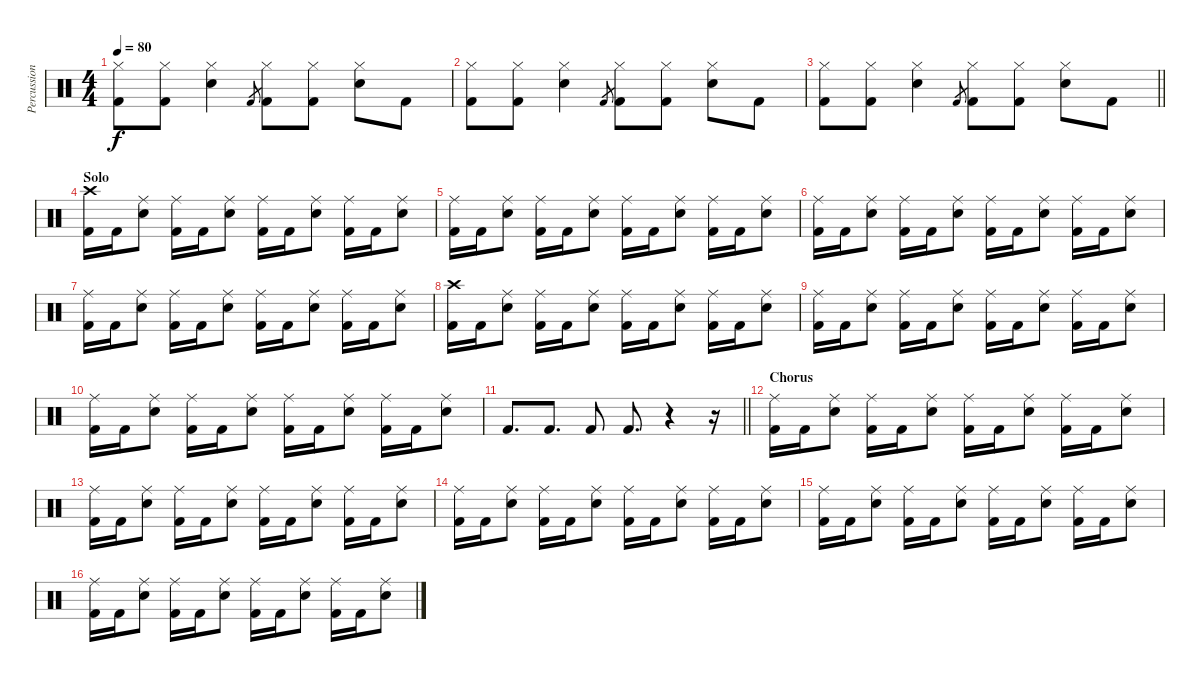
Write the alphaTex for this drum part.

\track ("Percussion" "Percussion") {instrument percussion}
\staff {score}
\articulation defaults
\ts (4 4)
\tempo 80
\clef neutral
\ks c
("Hi-Hat (closed)" "Kick (hit) 2").8{dy f} ("Hi-Hat (closed)" "Kick (hit) 2").8 ("Hi-Hat (closed)" "Snare (hit) 2").4 "Kick (hit) 2".8{gr} ("Hi-Hat (closed)" "Kick (hit) 2").8 ("Hi-Hat (closed)" "Kick (hit) 2").8 ("Hi-Hat (closed)" "Snare (hit) 2").8 "Kick (hit) 2".8 |
("Hi-Hat (closed)" "Kick (hit) 2").8 ("Hi-Hat (closed)" "Kick (hit) 2").8 ("Hi-Hat (closed)" "Snare (hit) 2").4 "Kick (hit) 2".8{gr} ("Hi-Hat (closed)" "Kick (hit) 2").8 ("Hi-Hat (closed)" "Kick (hit) 2").8 ("Hi-Hat (closed)" "Snare (hit) 2").8 "Kick (hit) 2".8 |
\barLineRight lightlight
("Hi-Hat (closed)" "Kick (hit) 2").8 ("Hi-Hat (closed)" "Kick (hit) 2").8 ("Hi-Hat (closed)" "Snare (hit) 2").4 "Kick (hit) 2".8{gr} ("Hi-Hat (closed)" "Kick (hit) 2").8 ("Hi-Hat (closed)" "Kick (hit) 2").8 ("Hi-Hat (closed)" "Snare (hit) 2").8 "Kick (hit) 2".8 |
\section ("" "Solo")
("Crash high (hit)" "Kick (hit) 2").16 "Kick (hit) 2".16 ("Ride (middle)" "Snare (hit) 2").8 ("Ride (middle)" "Kick (hit) 2").16 "Kick (hit) 2".16 ("Ride (middle)" "Snare (hit) 2").8 ("Ride (middle)" "Kick (hit) 2").16 "Kick (hit) 2".16 ("Ride (middle)" "Snare (hit) 2").8 ("Ride (middle)" "Kick (hit) 2").16 "Kick (hit) 2".16 ("Ride (middle)" "Snare (hit) 2").8 |
("Ride (middle)" "Kick (hit) 2").16 "Kick (hit) 2".16 ("Ride (middle)" "Snare (hit) 2").8 ("Ride (middle)" "Kick (hit) 2").16 "Kick (hit) 2".16 ("Ride (middle)" "Snare (hit) 2").8 ("Ride (middle)" "Kick (hit) 2").16 "Kick (hit) 2".16 ("Ride (middle)" "Snare (hit) 2").8 ("Ride (middle)" "Kick (hit) 2").16 "Kick (hit) 2".16 ("Ride (middle)" "Snare (hit) 2").8 |
("Ride (middle)" "Kick (hit) 2").16 "Kick (hit) 2".16 ("Ride (middle)" "Snare (hit) 2").8 ("Ride (middle)" "Kick (hit) 2").16 "Kick (hit) 2".16 ("Ride (middle)" "Snare (hit) 2").8 ("Ride (middle)" "Kick (hit) 2").16 "Kick (hit) 2".16 ("Ride (middle)" "Snare (hit) 2").8 ("Ride (middle)" "Kick (hit) 2").16 "Kick (hit) 2".16 ("Ride (middle)" "Snare (hit) 2").8 |
("Ride (middle)" "Kick (hit) 2").16 "Kick (hit) 2".16 ("Ride (middle)" "Snare (hit) 2").8 ("Ride (middle)" "Kick (hit) 2").16 "Kick (hit) 2".16 ("Ride (middle)" "Snare (hit) 2").8 ("Ride (middle)" "Kick (hit) 2").16 "Kick (hit) 2".16 ("Ride (middle)" "Snare (hit) 2").8 ("Ride (middle)" "Kick (hit) 2").16 "Kick (hit) 2".16 ("Ride (middle)" "Snare (hit) 2").8 |
("Crash high (hit)" "Kick (hit) 2").16 "Kick (hit) 2".16 ("Ride (middle)" "Snare (hit) 2").8 ("Ride (middle)" "Kick (hit) 2").16 "Kick (hit) 2".16 ("Ride (middle)" "Snare (hit) 2").8 ("Ride (middle)" "Kick (hit) 2").16 "Kick (hit) 2".16 ("Ride (middle)" "Snare (hit) 2").8 ("Ride (middle)" "Kick (hit) 2").16 "Kick (hit) 2".16 ("Ride (middle)" "Snare (hit) 2").8 |
("Ride (middle)" "Kick (hit) 2").16 "Kick (hit) 2".16 ("Ride (middle)" "Snare (hit) 2").8 ("Ride (middle)" "Kick (hit) 2").16 "Kick (hit) 2".16 ("Ride (middle)" "Snare (hit) 2").8 ("Ride (middle)" "Kick (hit) 2").16 "Kick (hit) 2".16 ("Ride (middle)" "Snare (hit) 2").8 ("Ride (middle)" "Kick (hit) 2").16 "Kick (hit) 2".16 ("Ride (middle)" "Snare (hit) 2").8 |
("Ride (middle)" "Kick (hit) 2").16 "Kick (hit) 2".16 ("Ride (middle)" "Snare (hit) 2").8 ("Ride (middle)" "Kick (hit) 2").16 "Kick (hit) 2".16 ("Ride (middle)" "Snare (hit) 2").8 ("Ride (middle)" "Kick (hit) 2").16 "Kick (hit) 2".16 ("Ride (middle)" "Snare (hit) 2").8 ("Ride (middle)" "Kick (hit) 2").16 "Kick (hit) 2".16 ("Ride (middle)" "Snare (hit) 2").8 |
\barLineRight lightlight "Kick (hit) 2".8{d} "Kick (hit) 2".8{d} "Kick (hit) 2".8 "Kick (hit) 2".8{d}
r.4 r.16 |
\section ("" "Chorus")
("Ride (middle)" "Kick (hit) 2").16 "Kick (hit) 2".16 ("Ride (middle)" "Snare (hit) 2").8 ("Ride (middle)" "Kick (hit) 2").16 "Kick (hit) 2".16 ("Ride (middle)" "Snare (hit) 2").8 ("Ride (middle)" "Kick (hit) 2").16 "Kick (hit) 2".16 ("Ride (middle)" "Snare (hit) 2").8 ("Ride (middle)" "Kick (hit) 2").16 "Kick (hit) 2".16 ("Ride (middle)" "Snare (hit) 2").8 |
("Ride (middle)" "Kick (hit) 2").16 "Kick (hit) 2".16 ("Ride (middle)" "Snare (hit) 2").8 ("Ride (middle)" "Kick (hit) 2").16 "Kick (hit) 2".16 ("Ride (middle)" "Snare (hit) 2").8 ("Ride (middle)" "Kick (hit) 2").16 "Kick (hit) 2".16 ("Ride (middle)" "Snare (hit) 2").8 ("Ride (middle)" "Kick (hit) 2").16 "Kick (hit) 2".16 ("Ride (middle)" "Snare (hit) 2").8 |
("Ride (middle)" "Kick (hit) 2").16 "Kick (hit) 2".16 ("Ride (middle)" "Snare (hit) 2").8 ("Ride (middle)" "Kick (hit) 2").16 "Kick (hit) 2".16 ("Ride (middle)" "Snare (hit) 2").8 ("Ride (middle)" "Kick (hit) 2").16 "Kick (hit) 2".16 ("Ride (middle)" "Snare (hit) 2").8 ("Ride (middle)" "Kick (hit) 2").16 "Kick (hit) 2".16 ("Ride (middle)" "Snare (hit) 2").8 |
("Ride (middle)" "Kick (hit) 2").16 "Kick (hit) 2".16 ("Ride (middle)" "Snare (hit) 2").8 ("Ride (middle)" "Kick (hit) 2").16 "Kick (hit) 2".16 ("Ride (middle)" "Snare (hit) 2").8 ("Ride (middle)" "Kick (hit) 2").16 "Kick (hit) 2".16 ("Ride (middle)" "Snare (hit) 2").8 ("Ride (middle)" "Kick (hit) 2").16 "Kick (hit) 2".16 ("Ride (middle)" "Snare (hit) 2").8 |
("Ride (middle)" "Kick (hit) 2").16 "Kick (hit) 2".16 ("Ride (middle)" "Snare (hit) 2").8 ("Ride (middle)" "Kick (hit) 2").16 "Kick (hit) 2".16 ("Ride (middle)" "Snare (hit) 2").8 ("Ride (middle)" "Kick (hit) 2").16 "Kick (hit) 2".16 ("Ride (middle)" "Snare (hit) 2").8 ("Ride (middle)" "Kick (hit) 2").16 "Kick (hit) 2".16 ("Ride (middle)" "Snare (hit) 2").8
